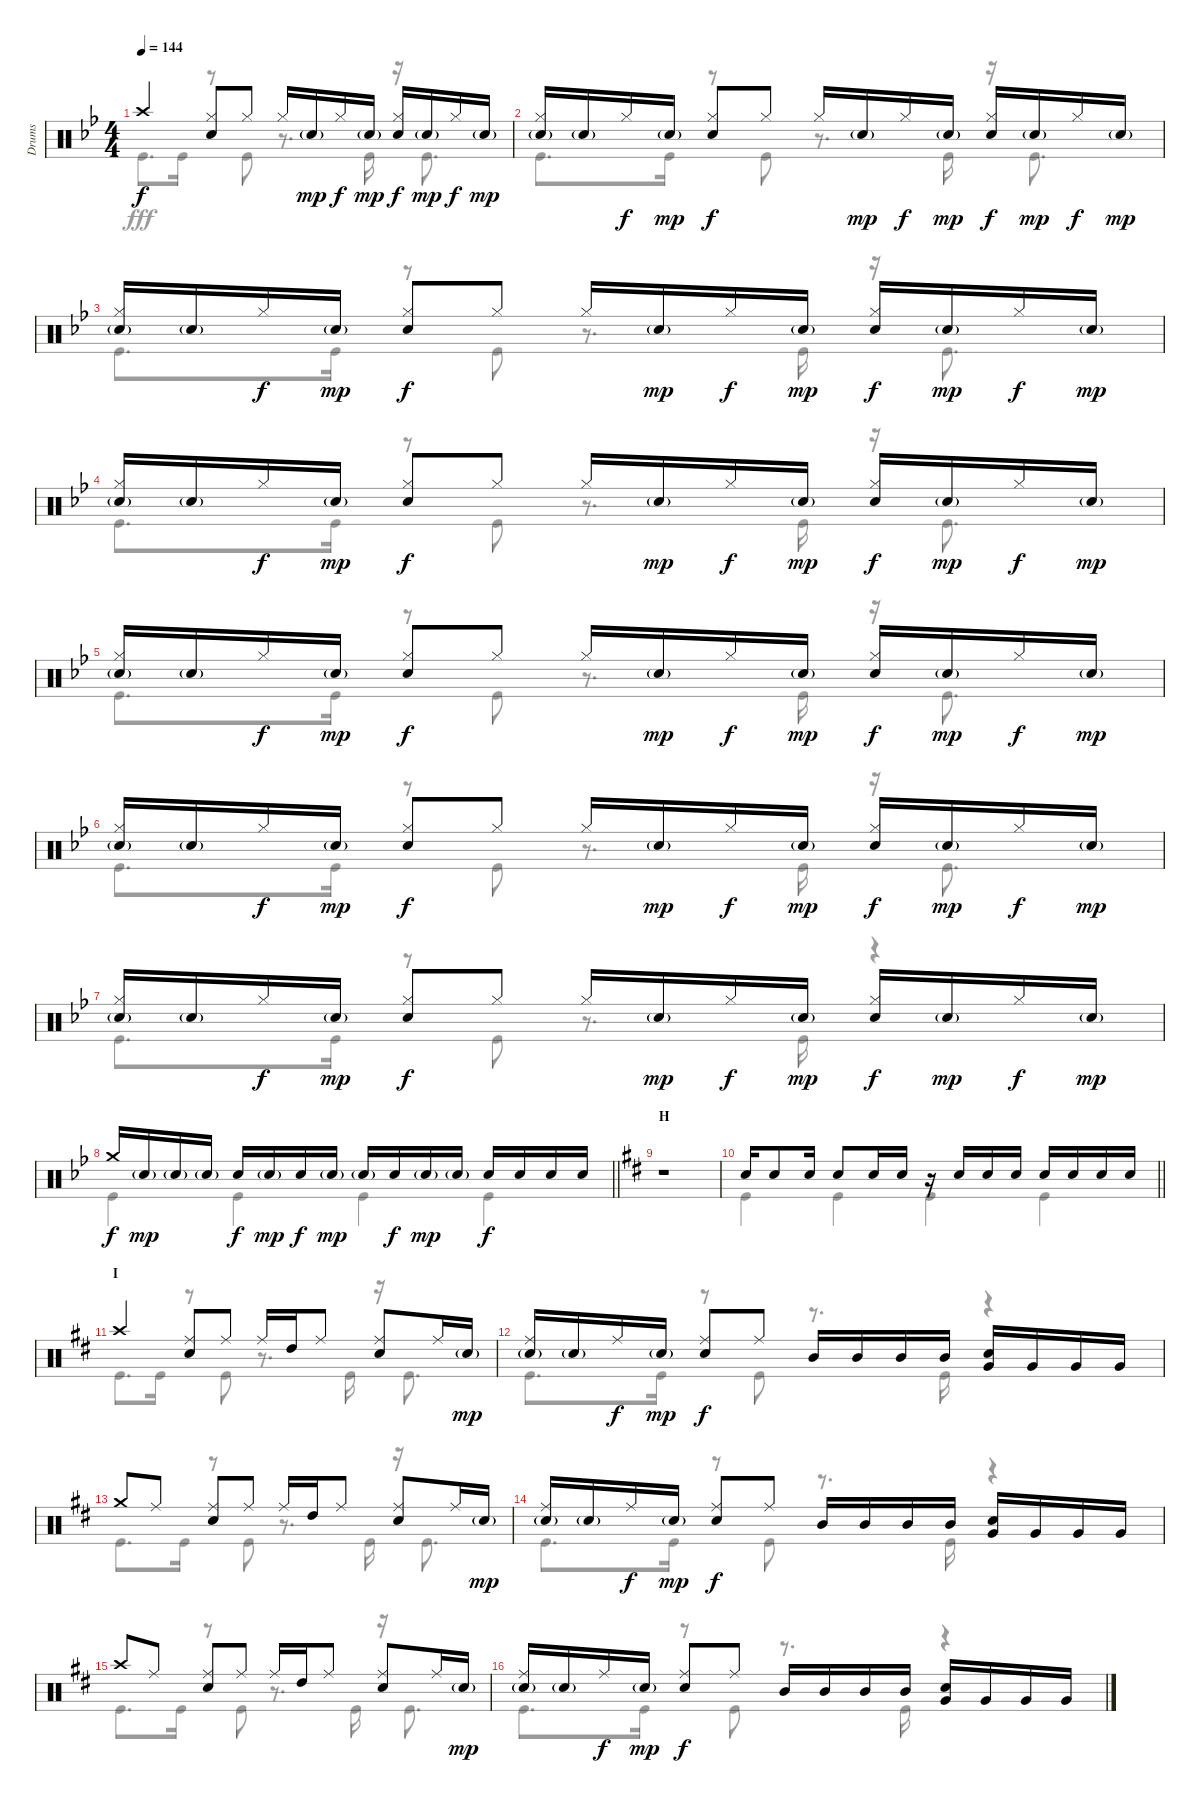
\track ("Drums" "Drums") {instrument percussion}
\staff {score}
\articulation defaults
\voice
\ts (4 4)
\tempo 144
\clef neutral
\ks bb "Crash high (hit)".4{dy f}
("Hi-Hat (closed)" "Snare (hit) 2").8 "Hi-Hat (closed)".8 "Hi-Hat (closed)".16 "Snare (hit) 2"{g}.16{dy mp} "Hi-Hat (closed)".16{dy f} "Snare (hit) 2"{g}.16{dy mp} ("Hi-Hat (closed)" "Snare (hit) 2").16{dy f} "Snare (hit) 2"{g}.16{dy mp} "Hi-Hat (closed)".16{dy f} "Snare (hit) 2"{g}.16{dy mp} |
("Hi-Hat (closed)" "Snare (hit) 2"{g}).16 "Snare (hit) 2"{g}.16 "Hi-Hat (closed)".16{dy f} "Snare (hit) 2"{g}.16{dy mp} ("Hi-Hat (closed)" "Snare (hit) 2").8{dy f} "Hi-Hat (closed)".8 "Hi-Hat (closed)".16 "Snare (hit) 2"{g}.16{dy mp} "Hi-Hat (closed)".16{dy f} "Snare (hit) 2"{g}.16{dy mp} ("Hi-Hat (closed)" "Snare (hit) 2").16{dy f} "Snare (hit) 2"{g}.16{dy mp} "Hi-Hat (closed)".16{dy f} "Snare (hit) 2"{g}.16{dy mp} |
("Hi-Hat (closed)" "Snare (hit) 2"{g}).16 "Snare (hit) 2"{g}.16 "Hi-Hat (closed)".16{dy f} "Snare (hit) 2"{g}.16{dy mp} ("Hi-Hat (closed)" "Snare (hit) 2").8{dy f} "Hi-Hat (closed)".8 "Hi-Hat (closed)".16 "Snare (hit) 2"{g}.16{dy mp} "Hi-Hat (closed)".16{dy f} "Snare (hit) 2"{g}.16{dy mp} ("Hi-Hat (closed)" "Snare (hit) 2").16{dy f} "Snare (hit) 2"{g}.16{dy mp} "Hi-Hat (closed)".16{dy f} "Snare (hit) 2"{g}.16{dy mp} |
("Hi-Hat (closed)" "Snare (hit) 2"{g}).16 "Snare (hit) 2"{g}.16 "Hi-Hat (closed)".16{dy f} "Snare (hit) 2"{g}.16{dy mp} ("Hi-Hat (closed)" "Snare (hit) 2").8{dy f} "Hi-Hat (closed)".8 "Hi-Hat (closed)".16 "Snare (hit) 2"{g}.16{dy mp} "Hi-Hat (closed)".16{dy f} "Snare (hit) 2"{g}.16{dy mp} ("Hi-Hat (closed)" "Snare (hit) 2").16{dy f} "Snare (hit) 2"{g}.16{dy mp} "Hi-Hat (closed)".16{dy f} "Snare (hit) 2"{g}.16{dy mp} |
("Hi-Hat (closed)" "Snare (hit) 2"{g}).16 "Snare (hit) 2"{g}.16 "Hi-Hat (closed)".16{dy f} "Snare (hit) 2"{g}.16{dy mp} ("Hi-Hat (closed)" "Snare (hit) 2").8{dy f} "Hi-Hat (closed)".8 "Hi-Hat (closed)".16 "Snare (hit) 2"{g}.16{dy mp} "Hi-Hat (closed)".16{dy f} "Snare (hit) 2"{g}.16{dy mp} ("Hi-Hat (closed)" "Snare (hit) 2").16{dy f} "Snare (hit) 2"{g}.16{dy mp} "Hi-Hat (closed)".16{dy f} "Snare (hit) 2"{g}.16{dy mp} |
("Hi-Hat (closed)" "Snare (hit) 2"{g}).16 "Snare (hit) 2"{g}.16 "Hi-Hat (closed)".16{dy f} "Snare (hit) 2"{g}.16{dy mp} ("Hi-Hat (closed)" "Snare (hit) 2").8{dy f} "Hi-Hat (closed)".8 "Hi-Hat (closed)".16 "Snare (hit) 2"{g}.16{dy mp} "Hi-Hat (closed)".16{dy f} "Snare (hit) 2"{g}.16{dy mp} ("Hi-Hat (closed)" "Snare (hit) 2").16{dy f} "Snare (hit) 2"{g}.16{dy mp} "Hi-Hat (closed)".16{dy f} "Snare (hit) 2"{g}.16{dy mp} |
("Hi-Hat (closed)" "Snare (hit) 2"{g}).16 "Snare (hit) 2"{g}.16 "Hi-Hat (closed)".16{dy f} "Snare (hit) 2"{g}.16{dy mp} ("Hi-Hat (closed)" "Snare (hit) 2").8{dy f} "Hi-Hat (closed)".8 "Hi-Hat (closed)".16 "Snare (hit) 2"{g}.16{dy mp} "Hi-Hat (closed)".16{dy f} "Snare (hit) 2"{g}.16{dy mp} ("Hi-Hat (closed)" "Snare (hit) 2").16{dy f} "Snare (hit) 2"{g}.16{dy mp} "Hi-Hat (closed)".16{dy f} "Snare (hit) 2"{g}.16{dy mp} |
\barLineRight lightlight "Crash medium (hit)".16{dy f} "Snare (hit) 2"{g}.16{dy mp} "Snare (hit) 2"{g}.16 "Snare (hit) 2"{g}.16 "Snare (hit) 2".16{dy f} "Snare (hit) 2"{g}.16{dy mp} "Snare (hit) 2".16{dy f} "Snare (hit) 2"{g}.16{dy mp} "Snare (hit) 2"{g}.16 "Snare (hit) 2".16{dy f} "Snare (hit) 2"{g}.16{dy mp} "Snare (hit) 2"{g}.16 "Snare (hit) 2".16{dy f} "Snare (hit) 2".16 "Snare (hit) 2".16 "Snare (hit) 2".16
|
\section ("" "H")
\ks d
r.1 |
\barLineRight lightlight "Snare (hit) 2".16 "Snare (hit) 2".8 "Snare (hit) 2".16 "Snare (hit) 2".8 "Snare (hit) 2".16 "Snare (hit) 2".16
r.16 "Snare (hit) 2".16 "Snare (hit) 2".16 "Snare (hit) 2".16 "Snare (hit) 2".16 "Snare (hit) 2".16 "Snare (hit) 2".16 "Snare (hit) 2".16 |
\section ("" "I")
"Crash high (hit)".4 ("Ride (middle)" "Snare (hit) 2").8 "Ride (middle)".8 "Ride (middle)".16 "High Tom (hit)".16 "Ride (middle)".8 ("Ride (middle)" "Snare (hit) 2").8 "Ride (middle)".16 "Snare (hit) 2"{g}.16{dy mp} |
("Ride (middle)" "Snare (hit) 2"{g}).16 "Snare (hit) 2"{g}.16 "Ride (middle)".16{dy f} "Snare (hit) 2"{g}.16{dy mp} ("Ride (middle)" "Snare (hit) 2").8{dy f} "Ride (middle)".8 "Mid Tom (hit)".16 "Mid Tom (hit)".16 "Mid Tom (hit)".16 "Mid Tom (hit)".16 ("Snare (hit) 2" "Very Low Tom (hit)").16 "Very Low Tom (hit)".16 "Very Low Tom (hit)".16 "Very Low Tom (hit)".16 |
"Crash medium (hit)".8 "Ride (middle)".8 ("Ride (middle)" "Snare (hit) 2").8 "Ride (middle)".8 "Ride (middle)".16 "High Tom (hit)".16 "Ride (middle)".8 ("Ride (middle)" "Snare (hit) 2").8 "Ride (middle)".16 "Snare (hit) 2"{g}.16{dy mp} |
("Ride (middle)" "Snare (hit) 2"{g}).16 "Snare (hit) 2"{g}.16 "Ride (middle)".16{dy f} "Snare (hit) 2"{g}.16{dy mp} ("Ride (middle)" "Snare (hit) 2").8{dy f} "Ride (middle)".8 "Mid Tom (hit)".16 "Mid Tom (hit)".16 "Mid Tom (hit)".16 "Mid Tom (hit)".16 ("Snare (hit) 2" "Very Low Tom (hit)").16 "Very Low Tom (hit)".16 "Very Low Tom (hit)".16 "Very Low Tom (hit)".16 |
"Crash high (hit)".8 "Ride (middle)".8 ("Ride (middle)" "Snare (hit) 2").8 "Ride (middle)".8 "Ride (middle)".16 "High Tom (hit)".16 "Ride (middle)".8 ("Ride (middle)" "Snare (hit) 2").8 "Ride (middle)".16 "Snare (hit) 2"{g}.16{dy mp} |
("Ride (middle)" "Snare (hit) 2"{g}).16 "Snare (hit) 2"{g}.16 "Ride (middle)".16{dy f} "Snare (hit) 2"{g}.16{dy mp} ("Ride (middle)" "Snare (hit) 2").8{dy f} "Ride (middle)".8 "Mid Tom (hit)".16 "Mid Tom (hit)".16 "Mid Tom (hit)".16 "Mid Tom (hit)".16 ("Snare (hit) 2" "Very Low Tom (hit)").16 "Very Low Tom (hit)".16 "Very Low Tom (hit)".16 "Very Low Tom (hit)".16
\voice
\clef neutral
\ottava regular
\simile none
\ks bb "Kick (hit)".8{d dy fff} "Kick (hit)".16
r.8 "Kick (hit)".8 r.8{d} "Kick (hit)".16 r.16 "Kick (hit)".8{d} |
"Kick (hit)".8{d} "Kick (hit)".16 r.8 "Kick (hit)".8 r.8{d} "Kick (hit)".16 r.16 "Kick (hit)".8{d} |
"Kick (hit)".8{d} "Kick (hit)".16 r.8 "Kick (hit)".8 r.8{d} "Kick (hit)".16 r.16 "Kick (hit)".8{d} |
"Kick (hit)".8{d} "Kick (hit)".16 r.8 "Kick (hit)".8 r.8{d} "Kick (hit)".16 r.16 "Kick (hit)".8{d} |
"Kick (hit)".8{d} "Kick (hit)".16 r.8 "Kick (hit)".8 r.8{d} "Kick (hit)".16 r.16 "Kick (hit)".8{d} |
"Kick (hit)".8{d} "Kick (hit)".16 r.8 "Kick (hit)".8 r.8{d} "Kick (hit)".16 r.16 "Kick (hit)".8{d} |
"Kick (hit)".8{d} "Kick (hit)".16 r.8 "Kick (hit)".8 r.8{d} "Kick (hit)".16 r.4 |
\barLineRight lightlight "Kick (hit)".4 "Kick (hit)".4 "Kick (hit)".4 "Kick (hit)".4
|
\ks d
r.1 |
\barLineRight lightlight "Kick (hit)".4 "Kick (hit)".4 "Kick (hit)".4 "Kick (hit)".4
|
"Kick (hit)".8{d} "Kick (hit)".16 r.8 "Kick (hit)".8 r.8{d} "Kick (hit)".16 r.16 "Kick (hit)".8{d} |
"Kick (hit)".8{d} "Kick (hit)".16 r.8 "Kick (hit)".8 r.8{d} "Kick (hit)".16 r.4 |
"Kick (hit)".8{d} "Kick (hit)".16 r.8 "Kick (hit)".8 r.8{d} "Kick (hit)".16 r.16 "Kick (hit)".8{d} |
"Kick (hit)".8{d} "Kick (hit)".16 r.8 "Kick (hit)".8 r.8{d} "Kick (hit)".16 r.4 |
"Kick (hit)".8{d} "Kick (hit)".16 r.8 "Kick (hit)".8 r.8{d} "Kick (hit)".16 r.16 "Kick (hit)".8{d} |
"Kick (hit)".8{d} "Kick (hit)".16 r.8 "Kick (hit)".8 r.8{d} "Kick (hit)".16 r.4
